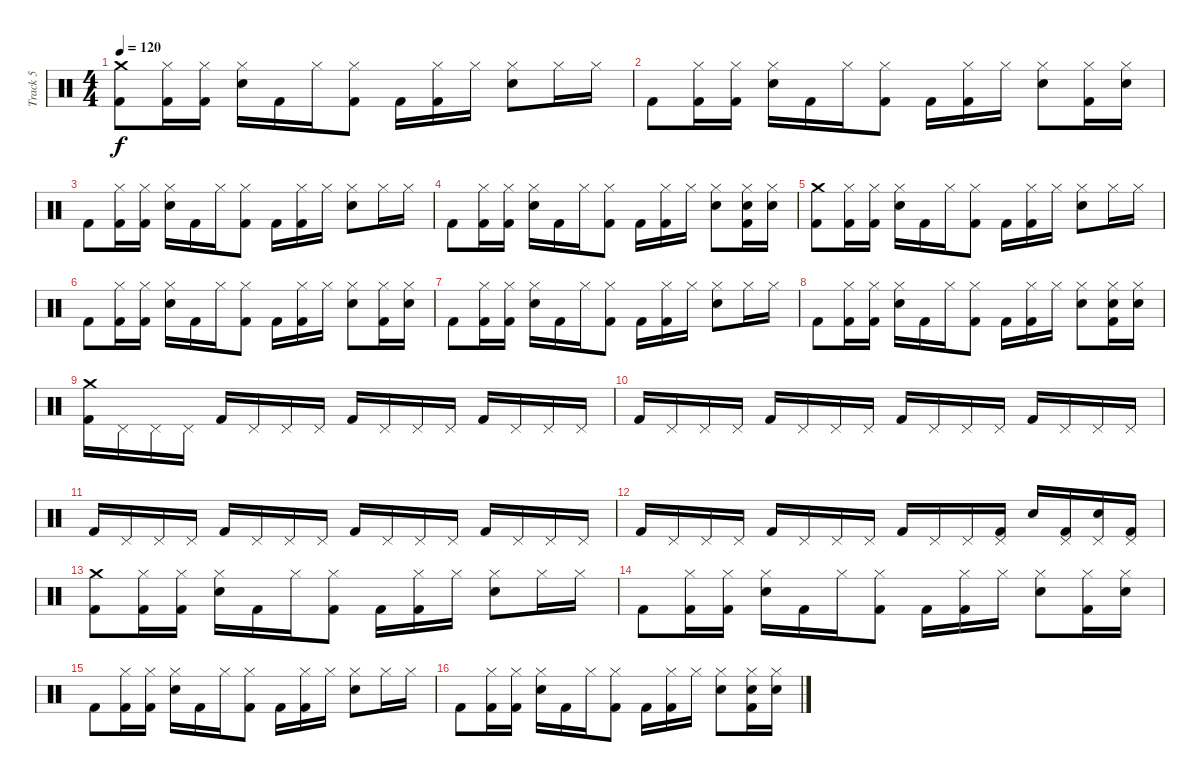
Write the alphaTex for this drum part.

\track ("Track 5" "Track 5") {instrument percussion}
\staff {score}
\articulation defaults
\ts (4 4)
\tempo 120
\clef neutral
\ks c
("Crash medium (hit)" "Kick (hit) 2").8{dy f} ("Hi-Hat (closed)" "Kick (hit) 2").16 ("Hi-Hat (closed)" "Kick (hit) 2").16 ("Hi-Hat (closed)" "Snare (hit) 2").16 "Kick (hit) 2".16 "Hi-Hat (closed)".16 ("Hi-Hat (closed)" "Kick (hit) 2").8 "Kick (hit) 2".16 ("Hi-Hat (closed)" "Kick (hit) 2").16 "Hi-Hat (closed)".16 ("Hi-Hat (closed)" "Snare (hit) 2").8 "Hi-Hat (closed)".16 "Hi-Hat (closed)".16 |
"Kick (hit) 2".8 ("Hi-Hat (closed)" "Kick (hit) 2").16 ("Hi-Hat (closed)" "Kick (hit) 2").16 ("Hi-Hat (closed)" "Snare (hit) 2").16 "Kick (hit) 2".16 "Hi-Hat (closed)".16 ("Hi-Hat (closed)" "Kick (hit) 2").8 "Kick (hit) 2".16 ("Hi-Hat (closed)" "Kick (hit) 2").16 "Hi-Hat (closed)".16 ("Hi-Hat (closed)" "Snare (hit) 2").8 ("Hi-Hat (closed)" "Kick (hit) 2").16 ("Hi-Hat (closed)" "Snare (hit) 2").16 |
"Kick (hit) 2".8 ("Hi-Hat (closed)" "Kick (hit) 2").16 ("Hi-Hat (closed)" "Kick (hit) 2").16 ("Hi-Hat (closed)" "Snare (hit) 2").16 "Kick (hit) 2".16 "Hi-Hat (closed)".16 ("Hi-Hat (closed)" "Kick (hit) 2").8 "Kick (hit) 2".16 ("Hi-Hat (closed)" "Kick (hit) 2").16 "Hi-Hat (closed)".16 ("Hi-Hat (closed)" "Snare (hit) 2").8 "Hi-Hat (closed)".16 "Hi-Hat (closed)".16 |
"Kick (hit) 2".8 ("Hi-Hat (closed)" "Kick (hit) 2").16 ("Hi-Hat (closed)" "Kick (hit) 2").16 ("Hi-Hat (closed)" "Snare (hit) 2").16 "Kick (hit) 2".16 "Hi-Hat (closed)".16 ("Hi-Hat (closed)" "Kick (hit) 2").8 "Kick (hit) 2".16 ("Hi-Hat (closed)" "Kick (hit) 2").16 "Hi-Hat (closed)".16 ("Hi-Hat (closed)" "Snare (hit) 2").8 ("Hi-Hat (closed)" "Snare (hit) 2" "Kick (hit) 2").16 ("Hi-Hat (closed)" "Snare (hit) 2").16 |
("Crash medium (hit)" "Kick (hit) 2").8 ("Hi-Hat (closed)" "Kick (hit) 2").16 ("Hi-Hat (closed)" "Kick (hit) 2").16 ("Hi-Hat (closed)" "Snare (hit) 2").16 "Kick (hit) 2".16 "Hi-Hat (closed)".16 ("Hi-Hat (closed)" "Kick (hit) 2").8 "Kick (hit) 2".16 ("Hi-Hat (closed)" "Kick (hit) 2").16 "Hi-Hat (closed)".16 ("Hi-Hat (closed)" "Snare (hit) 2").8 "Hi-Hat (closed)".16 "Hi-Hat (closed)".16 |
"Kick (hit) 2".8 ("Hi-Hat (closed)" "Kick (hit) 2").16 ("Hi-Hat (closed)" "Kick (hit) 2").16 ("Hi-Hat (closed)" "Snare (hit) 2").16 "Kick (hit) 2".16 "Hi-Hat (closed)".16 ("Hi-Hat (closed)" "Kick (hit) 2").8 "Kick (hit) 2".16 ("Hi-Hat (closed)" "Kick (hit) 2").16 "Hi-Hat (closed)".16 ("Hi-Hat (closed)" "Snare (hit) 2").8 ("Hi-Hat (closed)" "Kick (hit) 2").16 ("Hi-Hat (closed)" "Snare (hit) 2").16 |
"Kick (hit) 2".8 ("Hi-Hat (closed)" "Kick (hit) 2").16 ("Hi-Hat (closed)" "Kick (hit) 2").16 ("Hi-Hat (closed)" "Snare (hit) 2").16 "Kick (hit) 2".16 "Hi-Hat (closed)".16 ("Hi-Hat (closed)" "Kick (hit) 2").8 "Kick (hit) 2".16 ("Hi-Hat (closed)" "Kick (hit) 2").16 "Hi-Hat (closed)".16 ("Hi-Hat (closed)" "Snare (hit) 2").8 "Hi-Hat (closed)".16 "Hi-Hat (closed)".16 |
"Kick (hit) 2".8 ("Hi-Hat (closed)" "Kick (hit) 2").16 ("Hi-Hat (closed)" "Kick (hit) 2").16 ("Hi-Hat (closed)" "Snare (hit) 2").16 "Kick (hit) 2".16 "Hi-Hat (closed)".16 ("Hi-Hat (closed)" "Kick (hit) 2").8 "Kick (hit) 2".16 ("Hi-Hat (closed)" "Kick (hit) 2").16 "Hi-Hat (closed)".16 ("Hi-Hat (closed)" "Snare (hit) 2").8 ("Hi-Hat (closed)" "Snare (hit) 2" "Kick (hit) 2").16 ("Hi-Hat (closed)" "Snare (hit) 2").16 |
("Crash medium (hit)" "Kick (hit) 2").16 "Pedal Hi-Hat (hit)".16 "Pedal Hi-Hat (hit)".16 "Pedal Hi-Hat (hit)".16 "Kick (hit) 2".16 "Pedal Hi-Hat (hit)".16 "Pedal Hi-Hat (hit)".16 "Pedal Hi-Hat (hit)".16 "Kick (hit) 2".16 "Pedal Hi-Hat (hit)".16 "Pedal Hi-Hat (hit)".16 "Pedal Hi-Hat (hit)".16 "Kick (hit) 2".16 "Pedal Hi-Hat (hit)".16 "Pedal Hi-Hat (hit)".16 "Pedal Hi-Hat (hit)".16 |
"Kick (hit) 2".16 "Pedal Hi-Hat (hit)".16 "Pedal Hi-Hat (hit)".16 "Pedal Hi-Hat (hit)".16 "Kick (hit) 2".16 "Pedal Hi-Hat (hit)".16 "Pedal Hi-Hat (hit)".16 "Pedal Hi-Hat (hit)".16 "Kick (hit) 2".16 "Pedal Hi-Hat (hit)".16 "Pedal Hi-Hat (hit)".16 "Pedal Hi-Hat (hit)".16 "Kick (hit) 2".16 "Pedal Hi-Hat (hit)".16 "Pedal Hi-Hat (hit)".16 "Pedal Hi-Hat (hit)".16 |
"Kick (hit) 2".16 "Pedal Hi-Hat (hit)".16 "Pedal Hi-Hat (hit)".16 "Pedal Hi-Hat (hit)".16 "Kick (hit) 2".16 "Pedal Hi-Hat (hit)".16 "Pedal Hi-Hat (hit)".16 "Pedal Hi-Hat (hit)".16 "Kick (hit) 2".16 "Pedal Hi-Hat (hit)".16 "Pedal Hi-Hat (hit)".16 "Pedal Hi-Hat (hit)".16 "Kick (hit) 2".16 "Pedal Hi-Hat (hit)".16 "Pedal Hi-Hat (hit)".16 "Pedal Hi-Hat (hit)".16 |
"Kick (hit) 2".16 "Pedal Hi-Hat (hit)".16 "Pedal Hi-Hat (hit)".16 "Pedal Hi-Hat (hit)".16 "Kick (hit) 2".16 "Pedal Hi-Hat (hit)".16 "Pedal Hi-Hat (hit)".16 "Pedal Hi-Hat (hit)".16 "Kick (hit) 2".16 "Pedal Hi-Hat (hit)".16 "Pedal Hi-Hat (hit)".16 ("Pedal Hi-Hat (hit)" "Kick (hit) 2").16 "Snare (hit) 2".16 ("Pedal Hi-Hat (hit)" "Kick (hit) 2").16 ("Pedal Hi-Hat (hit)" "Snare (hit) 2").16 ("Pedal Hi-Hat (hit)" "Kick (hit) 2").16 |
("Crash medium (hit)" "Kick (hit) 2").8 ("Hi-Hat (closed)" "Kick (hit) 2").16 ("Hi-Hat (closed)" "Kick (hit) 2").16 ("Hi-Hat (closed)" "Snare (hit) 2").16 "Kick (hit) 2".16 "Hi-Hat (closed)".16 ("Hi-Hat (closed)" "Kick (hit) 2").8 "Kick (hit) 2".16 ("Hi-Hat (closed)" "Kick (hit) 2").16 "Hi-Hat (closed)".16 ("Hi-Hat (closed)" "Snare (hit) 2").8 "Hi-Hat (closed)".16 "Hi-Hat (closed)".16 |
"Kick (hit) 2".8 ("Hi-Hat (closed)" "Kick (hit) 2").16 ("Hi-Hat (closed)" "Kick (hit) 2").16 ("Hi-Hat (closed)" "Snare (hit) 2").16 "Kick (hit) 2".16 "Hi-Hat (closed)".16 ("Hi-Hat (closed)" "Kick (hit) 2").8 "Kick (hit) 2".16 ("Hi-Hat (closed)" "Kick (hit) 2").16 "Hi-Hat (closed)".16 ("Hi-Hat (closed)" "Snare (hit) 2").8 ("Hi-Hat (closed)" "Kick (hit) 2").16 ("Hi-Hat (closed)" "Snare (hit) 2").16 |
"Kick (hit) 2".8 ("Hi-Hat (closed)" "Kick (hit) 2").16 ("Hi-Hat (closed)" "Kick (hit) 2").16 ("Hi-Hat (closed)" "Snare (hit) 2").16 "Kick (hit) 2".16 "Hi-Hat (closed)".16 ("Hi-Hat (closed)" "Kick (hit) 2").8 "Kick (hit) 2".16 ("Hi-Hat (closed)" "Kick (hit) 2").16 "Hi-Hat (closed)".16 ("Hi-Hat (closed)" "Snare (hit) 2").8 "Hi-Hat (closed)".16 "Hi-Hat (closed)".16 |
"Kick (hit) 2".8 ("Hi-Hat (closed)" "Kick (hit) 2").16 ("Hi-Hat (closed)" "Kick (hit) 2").16 ("Hi-Hat (closed)" "Snare (hit) 2").16 "Kick (hit) 2".16 "Hi-Hat (closed)".16 ("Hi-Hat (closed)" "Kick (hit) 2").8 "Kick (hit) 2".16 ("Hi-Hat (closed)" "Kick (hit) 2").16 "Hi-Hat (closed)".16 ("Hi-Hat (closed)" "Snare (hit) 2").8 ("Hi-Hat (closed)" "Snare (hit) 2" "Kick (hit) 2").16 ("Hi-Hat (closed)" "Snare (hit) 2").16
